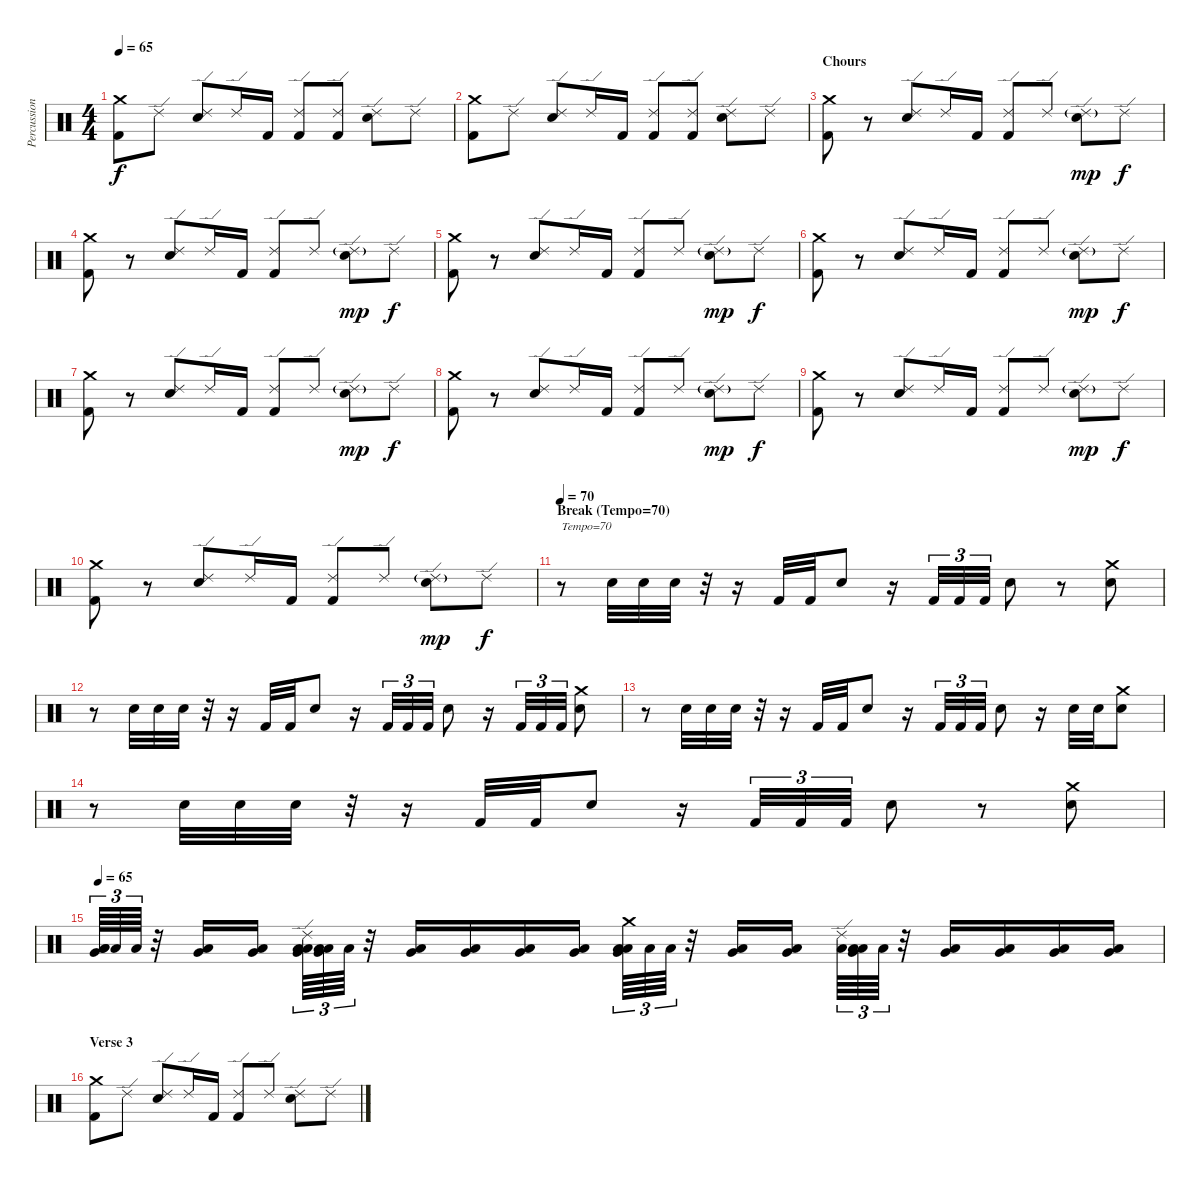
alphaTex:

\track ("Percussion" "Percussion") {instrument percussion}
\staff {score}
\articulation defaults
\ts (4 4)
\tempo 65
\clef neutral
\ks c
("Crash medium (hit)" "Kick (hit) 2").8{dy f} "Ride (edge) 2".8 ("Ride (edge) 2" "Snare (hit) 2").8 "Ride (edge) 2".16 "Kick (hit) 2".16 ("Ride (edge) 2" "Kick (hit) 2").8 ("Ride (edge) 2" "Kick (hit) 2").8 ("Ride (edge) 2" "Snare (hit) 2").8 "Ride (edge) 2".8 |
("Crash medium (hit)" "Kick (hit) 2").8 "Ride (edge) 2".8 ("Ride (edge) 2" "Snare (hit) 2").8 "Ride (edge) 2".16 "Kick (hit) 2".16 ("Ride (edge) 2" "Kick (hit) 2").8 ("Ride (edge) 2" "Kick (hit) 2").8 ("Ride (edge) 2" "Snare (hit) 2").8 "Ride (edge) 2".8 |
\section ("" "Chours")
("Crash medium (hit)" "Kick (hit) 2").8 r.8 ("Ride (edge) 2" "Snare (hit) 2").8 "Ride (edge) 2".16 "Kick (hit) 2".16 ("Ride (edge) 2" "Kick (hit) 2").8 "Ride (edge) 2".8 ("Ride (edge) 2"{g} "Snare (hit) 2").8{dy mp} "Ride (edge) 2".8{dy f} |
("Crash medium (hit)" "Kick (hit) 2").8 r.8 ("Ride (edge) 2" "Snare (hit) 2").8 "Ride (edge) 2".16 "Kick (hit) 2".16 ("Ride (edge) 2" "Kick (hit) 2").8 "Ride (edge) 2".8 ("Ride (edge) 2"{g} "Snare (hit) 2").8{dy mp} "Ride (edge) 2".8{dy f} |
("Crash medium (hit)" "Kick (hit) 2").8 r.8 ("Ride (edge) 2" "Snare (hit) 2").8 "Ride (edge) 2".16 "Kick (hit) 2".16 ("Ride (edge) 2" "Kick (hit) 2").8 "Ride (edge) 2".8 ("Ride (edge) 2"{g} "Snare (hit) 2").8{dy mp} "Ride (edge) 2".8{dy f} |
("Crash medium (hit)" "Kick (hit) 2").8 r.8 ("Ride (edge) 2" "Snare (hit) 2").8 "Ride (edge) 2".16 "Kick (hit) 2".16 ("Ride (edge) 2" "Kick (hit) 2").8 "Ride (edge) 2".8 ("Ride (edge) 2"{g} "Snare (hit) 2").8{dy mp} "Ride (edge) 2".8{dy f} |
("Crash medium (hit)" "Kick (hit) 2").8 r.8 ("Ride (edge) 2" "Snare (hit) 2").8 "Ride (edge) 2".16 "Kick (hit) 2".16 ("Ride (edge) 2" "Kick (hit) 2").8 "Ride (edge) 2".8 ("Ride (edge) 2"{g} "Snare (hit) 2").8{dy mp} "Ride (edge) 2".8{dy f} |
("Crash medium (hit)" "Kick (hit) 2").8 r.8 ("Ride (edge) 2" "Snare (hit) 2").8 "Ride (edge) 2".16 "Kick (hit) 2".16 ("Ride (edge) 2" "Kick (hit) 2").8 "Ride (edge) 2".8 ("Ride (edge) 2"{g} "Snare (hit) 2").8{dy mp} "Ride (edge) 2".8{dy f} |
("Crash medium (hit)" "Kick (hit) 2").8 r.8 ("Ride (edge) 2" "Snare (hit) 2").8 "Ride (edge) 2".16 "Kick (hit) 2".16 ("Ride (edge) 2" "Kick (hit) 2").8 "Ride (edge) 2".8 ("Ride (edge) 2"{g} "Snare (hit) 2").8{dy mp} "Ride (edge) 2".8{dy f} |
("Crash medium (hit)" "Kick (hit) 2").8 r.8 ("Ride (edge) 2" "Snare (hit) 2").8 "Ride (edge) 2".16 "Kick (hit) 2".16 ("Ride (edge) 2" "Kick (hit) 2").8 "Ride (edge) 2".8 ("Ride (edge) 2"{g} "Snare (hit) 2").8{dy mp} "Ride (edge) 2".8{dy f} |
\section ("" "Break (Tempo=70)")
\tempo 70
r.8{txt "Tempo=70"} "Snare (hit) 2".32 "Snare (hit) 2".32 "Snare (hit) 2".32 r.32 r.16 "Kick (hit) 2".32 "Kick (hit) 2".32 "Snare (hit) 2".8 r.16 "Kick (hit) 2".32{tu (3 2)} "Kick (hit) 2".32{tu (3 2)} "Kick (hit) 2".32{tu (3 2)} "Snare (hit) 2".8 r.8 ("Crash medium (hit)" "Snare (hit) 2").8 |
r.8 "Snare (hit) 2".32 "Snare (hit) 2".32 "Snare (hit) 2".32 r.32 r.16 "Kick (hit) 2".32 "Kick (hit) 2".32 "Snare (hit) 2".8 r.16 "Kick (hit) 2".32{tu (3 2)} "Kick (hit) 2".32{tu (3 2)} "Kick (hit) 2".32{tu (3 2)} "Snare (hit) 2".8 r.16 "Kick (hit) 2".32{tu (3 2)} "Kick (hit) 2".32{tu (3 2)} "Kick (hit) 2".32{tu (3 2)} ("Crash medium (hit)" "Snare (hit) 2").8 |
r.8 "Snare (hit) 2".32 "Snare (hit) 2".32 "Snare (hit) 2".32 r.32 r.16 "Kick (hit) 2".32 "Kick (hit) 2".32 "Snare (hit) 2".8 r.16 "Kick (hit) 2".32{tu (3 2)} "Kick (hit) 2".32{tu (3 2)} "Kick (hit) 2".32{tu (3 2)} "Snare (hit) 2".8 r.16 "Snare (hit) 2".32 "Snare (hit) 2".32 ("Crash medium (hit)" "Snare (hit) 2").8 |
r.8 "Snare (hit) 2".32 "Snare (hit) 2".32 "Snare (hit) 2".32 r.32 r.16 "Kick (hit) 2".32 "Kick (hit) 2".32 "Snare (hit) 2".8 r.16 "Kick (hit) 2".32{tu (3 2)} "Kick (hit) 2".32{tu (3 2)} "Kick (hit) 2".32{tu (3 2)} "Snare (hit) 2".8 r.8 ("Crash medium (hit)" "Snare (hit) 2").8 |
\tempo 65
("Low Tom (hit)" "Low Floor Tom (hit)" "Very Low Tom (hit)").64{tu (3 2) volume 16} "Low Tom (hit)".64{tu (3 2)} "Low Tom (hit)".64{tu (3 2)} r.32 ("Low Floor Tom (hit)" "Very Low Tom (hit)").16 ("Low Floor Tom (hit)" "Very Low Tom (hit)").16 ("Low Tom (hit)" "Low Floor Tom (hit)" "Very Low Tom (hit)" "Ride (edge) 2").64{tu (3 2)} ("Low Tom (hit)" "Low Floor Tom (hit)" "Very Low Tom (hit)").64{tu (3 2)} "Low Tom (hit)".64{tu (3 2)} r.32 ("Low Floor Tom (hit)" "Very Low Tom (hit)").16 ("Low Floor Tom (hit)" "Very Low Tom (hit)").16 ("Low Floor Tom (hit)" "Very Low Tom (hit)").16 ("Low Floor Tom (hit)" "Very Low Tom (hit)").16 ("Low Tom (hit)" "Low Floor Tom (hit)" "Very Low Tom (hit)" "Crash medium (hit)").64{tu (3 2)} "Low Tom (hit)".64{tu (3 2)} "Low Tom (hit)".64{tu (3 2)} r.32 ("Low Floor Tom (hit)" "Very Low Tom (hit)").16 ("Low Floor Tom (hit)" "Very Low Tom (hit)").16 ("Low Tom (hit)" "Ride (edge) 2").64{tu (3 2)} ("Low Tom (hit)" "Low Floor Tom (hit)" "Very Low Tom (hit)").64{tu (3 2)} "Low Tom (hit)".64{tu (3 2)} r.32 ("Low Floor Tom (hit)" "Very Low Tom (hit)").16 ("Low Floor Tom (hit)" "Very Low Tom (hit)").16 ("Low Floor Tom (hit)" "Very Low Tom (hit)").16 ("Low Floor Tom (hit)" "Very Low Tom (hit)").16 |
\section ("" "Verse 3")
("Crash medium (hit)" "Kick (hit) 2").8 "Ride (edge) 2".8 ("Ride (edge) 2" "Snare (hit) 2").8 "Ride (edge) 2".16 "Kick (hit) 2".16 ("Ride (edge) 2" "Kick (hit) 2").8 "Ride (edge) 2".8 ("Ride (edge) 2" "Snare (hit) 2").8 "Ride (edge) 2".8
